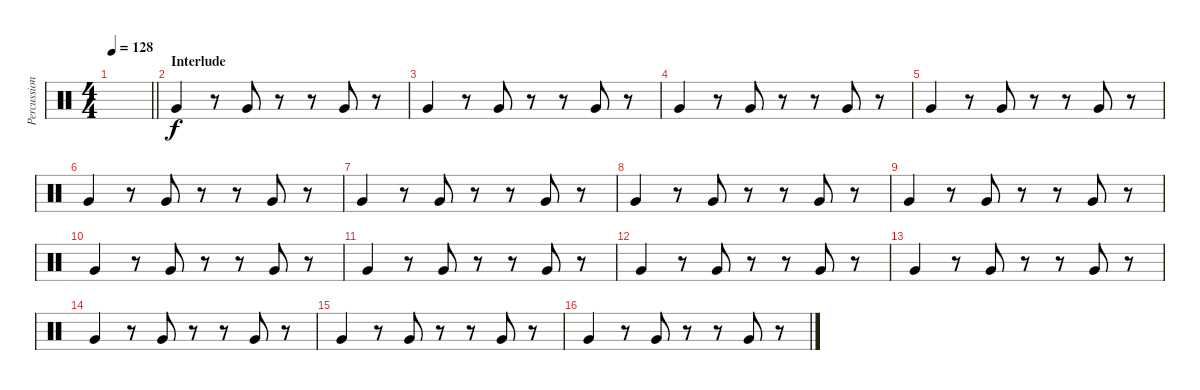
\track ("Percussions" "Percussion") {instrument percussion}
\staff {score}
\articulation defaults
\ts (4 4)
\tempo 128
\clef neutral
\barLineRight lightlight
\ks c
|
\section ("" "Interlude")
"Very Low Tom (hit)".4 r.8 "Very Low Tom (hit)".8 r.8 r.8 "Very Low Tom (hit)".8 r.8 |
"Very Low Tom (hit)".4 r.8 "Very Low Tom (hit)".8 r.8 r.8 "Very Low Tom (hit)".8 r.8 |
"Very Low Tom (hit)".4 r.8 "Very Low Tom (hit)".8 r.8 r.8 "Very Low Tom (hit)".8 r.8 |
"Very Low Tom (hit)".4 r.8 "Very Low Tom (hit)".8 r.8 r.8 "Very Low Tom (hit)".8 r.8 |
"Very Low Tom (hit)".4 r.8 "Very Low Tom (hit)".8 r.8 r.8 "Very Low Tom (hit)".8 r.8 |
"Very Low Tom (hit)".4 r.8 "Very Low Tom (hit)".8 r.8 r.8 "Very Low Tom (hit)".8 r.8 |
"Very Low Tom (hit)".4 r.8 "Very Low Tom (hit)".8 r.8 r.8 "Very Low Tom (hit)".8 r.8 |
"Very Low Tom (hit)".4 r.8 "Very Low Tom (hit)".8 r.8 r.8 "Very Low Tom (hit)".8 r.8 |
"Very Low Tom (hit)".4 r.8 "Very Low Tom (hit)".8 r.8 r.8 "Very Low Tom (hit)".8 r.8 |
"Very Low Tom (hit)".4 r.8 "Very Low Tom (hit)".8 r.8 r.8 "Very Low Tom (hit)".8 r.8 |
"Very Low Tom (hit)".4 r.8 "Very Low Tom (hit)".8 r.8 r.8 "Very Low Tom (hit)".8 r.8 |
"Very Low Tom (hit)".4 r.8 "Very Low Tom (hit)".8 r.8 r.8 "Very Low Tom (hit)".8 r.8 |
"Very Low Tom (hit)".4 r.8 "Very Low Tom (hit)".8 r.8 r.8 "Very Low Tom (hit)".8 r.8 |
"Very Low Tom (hit)".4 r.8 "Very Low Tom (hit)".8 r.8 r.8 "Very Low Tom (hit)".8 r.8 |
"Very Low Tom (hit)".4 r.8 "Very Low Tom (hit)".8 r.8 r.8 "Very Low Tom (hit)".8 r.8
